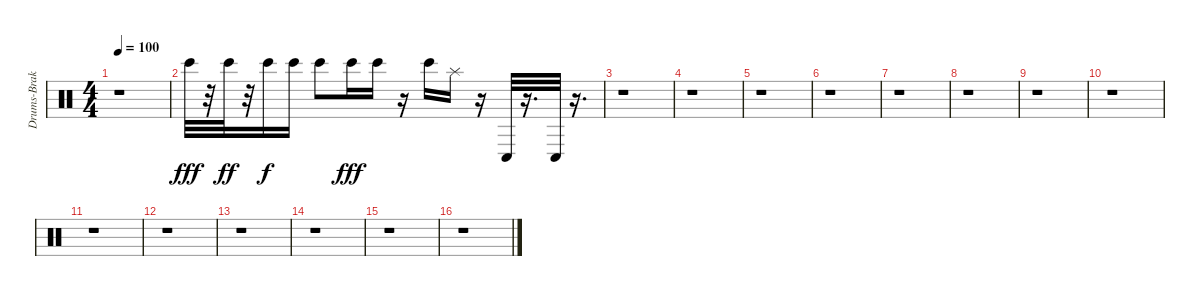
\track ("Drums-Brakes" "Drums-Brak") {instrument percussion}
\staff {score}
\articulation defaults
\ts (4 4)
\tempo 100
\clef neutral
\ks c
r.1{dy ff} |
"Bongo High (hit)".32{dy fff} r.32 "Bongo High (hit)".32{dy ff} r.32 "Bongo High (hit)".16{dy f} "Bongo High (hit)".16 "Bongo High (hit)".8 "Bongo High (hit)".16{dy fff} "Bongo High (hit)".16 r.16 "Bongo High (hit)".16 "Splash (hit)".16 r.16 "Conga low (hit)".32 r.16{d} "Conga low (hit)".32 r.16{d} |
r.1 |
r.1 |
r.1 |
r.1 |
r.1 |
r.1 |
r.1 |
r.1 |
r.1 |
r.1 |
r.1 |
r.1 |
r.1 |
r.1
